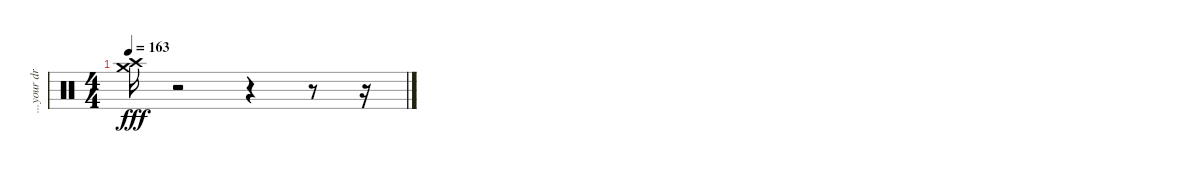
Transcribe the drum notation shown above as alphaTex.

\track ("...your drums (read: cymbals)..." "...your dr") {instrument percussion}
\staff {score}
\articulation defaults
\ts (4 4)
\tempo 163
\clef neutral
\ks c
("Crash high (hit)" "Crash medium (hit)").16{dy fff} r.2 r.4 r.8 r.16
